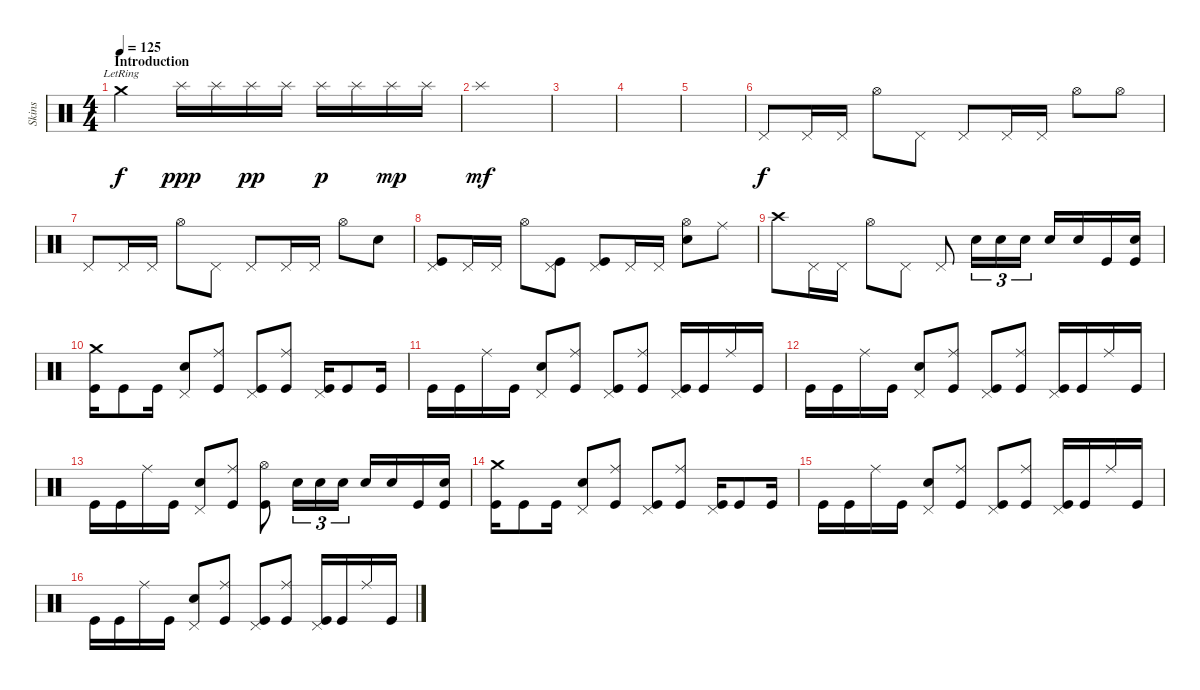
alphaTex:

\track ("Skins" "Skins") {instrument percussion}
\staff {score}
\articulation defaults
\ts (4 4)
\section ("" "Introduction")
\tempo 125
\clef neutral
\ks c "Crash medium (hit)"{lr}.2{dy f} "Splash (hit)".16{dy ppp} "Splash (hit)".16 "Splash (hit)".16{dy pp} "Splash (hit)".16 "Splash (hit)".16{dy p} "Splash (hit)".16 "Splash (hit)".16{dy mp} "Splash (hit)".16
|
"Splash (hit)".1{dy mf} |
|
|
|
"Pedal Hi-Hat (hit)".8{dy f} "Pedal Hi-Hat (hit)".16 "Pedal Hi-Hat (hit)".16 "Hi-Hat (open)".8 "Pedal Hi-Hat (hit)".8 "Pedal Hi-Hat (hit)".8 "Pedal Hi-Hat (hit)".16 "Pedal Hi-Hat (hit)".16 "Hi-Hat (open)".8 "Hi-Hat (open)".8 |
"Pedal Hi-Hat (hit)".8 "Pedal Hi-Hat (hit)".16 "Pedal Hi-Hat (hit)".16 "Hi-Hat (open)".8 "Pedal Hi-Hat (hit)".8 "Pedal Hi-Hat (hit)".8 "Pedal Hi-Hat (hit)".16 "Pedal Hi-Hat (hit)".16 "Hi-Hat (open)".8 "Electric Snare (hit)".8 |
("Pedal Hi-Hat (hit)" "Kick (hit)").8 "Pedal Hi-Hat (hit)".16 "Pedal Hi-Hat (hit)".16 "Hi-Hat (open)".8 ("Pedal Hi-Hat (hit)" "Kick (hit)").8 ("Pedal Hi-Hat (hit)" "Kick (hit)").8 "Pedal Hi-Hat (hit)".16 "Pedal Hi-Hat (hit)".16 ("Hi-Hat (open)" "Electric Snare (hit)").8 "Ride (middle)".8 |
"Crash high (hit)".8 "Pedal Hi-Hat (hit)".16 "Pedal Hi-Hat (hit)".16 "Hi-Hat (open)".8 "Pedal Hi-Hat (hit)".8 "Pedal Hi-Hat (hit)".8 "Electric Snare (hit)".16{tu (3 2)} "Electric Snare (hit)".16{tu (3 2)} "Electric Snare (hit)".16{tu (3 2)} "Snare (hit) 2".16 "Snare (hit) 2".16 "Kick (hit)".16 ("Snare (hit) 2" "Kick (hit)").16 |
("Crash medium (hit)" "Kick (hit)").16 "Kick (hit)".8 "Kick (hit)".16 ("Pedal Hi-Hat (hit)" "Electric Snare (hit)").8 ("Ride (middle)" "Kick (hit)").8 ("Pedal Hi-Hat (hit)" "Kick (hit)").8 ("Ride (middle)" "Kick (hit)").8 ("Pedal Hi-Hat (hit)" "Kick (hit)").16 "Kick (hit)".8 "Kick (hit)".16 |
"Kick (hit)".16 "Kick (hit)".16 "Ride (middle)".16 "Kick (hit)".16 ("Pedal Hi-Hat (hit)" "Electric Snare (hit)").8 ("Ride (middle)" "Kick (hit)").8 ("Pedal Hi-Hat (hit)" "Kick (hit)").8 ("Ride (middle)" "Kick (hit)").8 ("Pedal Hi-Hat (hit)" "Kick (hit)").16 "Kick (hit)".16 "Ride (middle)".16 "Kick (hit)".16 |
"Kick (hit)".16 "Kick (hit)".16 "Ride (middle)".16 "Kick (hit)".16 ("Pedal Hi-Hat (hit)" "Electric Snare (hit)").8 ("Ride (middle)" "Kick (hit)").8 ("Pedal Hi-Hat (hit)" "Kick (hit)").8 ("Ride (middle)" "Kick (hit)").8 ("Pedal Hi-Hat (hit)" "Kick (hit)").16 "Kick (hit)".16 "Ride (middle)".16 "Kick (hit)".16 |
"Kick (hit)".16 "Kick (hit)".16 "Ride (middle)".16 "Kick (hit)".16 ("Pedal Hi-Hat (hit)" "Electric Snare (hit)").8 ("Ride (middle)" "Kick (hit)").8 ("Hi-Hat (open)" "Kick (hit)").8 "Electric Snare (hit)".16{tu (3 2)} "Electric Snare (hit)".16{tu (3 2)} "Electric Snare (hit)".16{tu (3 2)} "Snare (hit) 2".16 "Snare (hit) 2".16 "Kick (hit)".16 ("Snare (hit) 2" "Kick (hit)").16 |
("Crash medium (hit)" "Kick (hit)").16 "Kick (hit)".8 "Kick (hit)".16 ("Pedal Hi-Hat (hit)" "Electric Snare (hit)").8 ("Ride (middle)" "Kick (hit)").8 ("Pedal Hi-Hat (hit)" "Kick (hit)").8 ("Ride (middle)" "Kick (hit)").8 ("Pedal Hi-Hat (hit)" "Kick (hit)").16 "Kick (hit)".8 "Kick (hit)".16 |
"Kick (hit)".16 "Kick (hit)".16 "Ride (middle)".16 "Kick (hit)".16 ("Pedal Hi-Hat (hit)" "Electric Snare (hit)").8 ("Ride (middle)" "Kick (hit)").8 ("Pedal Hi-Hat (hit)" "Kick (hit)").8 ("Ride (middle)" "Kick (hit)").8 ("Pedal Hi-Hat (hit)" "Kick (hit)").16 "Kick (hit)".16 "Ride (middle)".16 "Kick (hit)".16 |
"Kick (hit)".16 "Kick (hit)".16 "Ride (middle)".16 "Kick (hit)".16 ("Pedal Hi-Hat (hit)" "Electric Snare (hit)").8 ("Ride (middle)" "Kick (hit)").8 ("Pedal Hi-Hat (hit)" "Kick (hit)").8 ("Ride (middle)" "Kick (hit)").8 ("Pedal Hi-Hat (hit)" "Kick (hit)").16 "Kick (hit)".16 "Ride (middle)".16 "Kick (hit)".16
